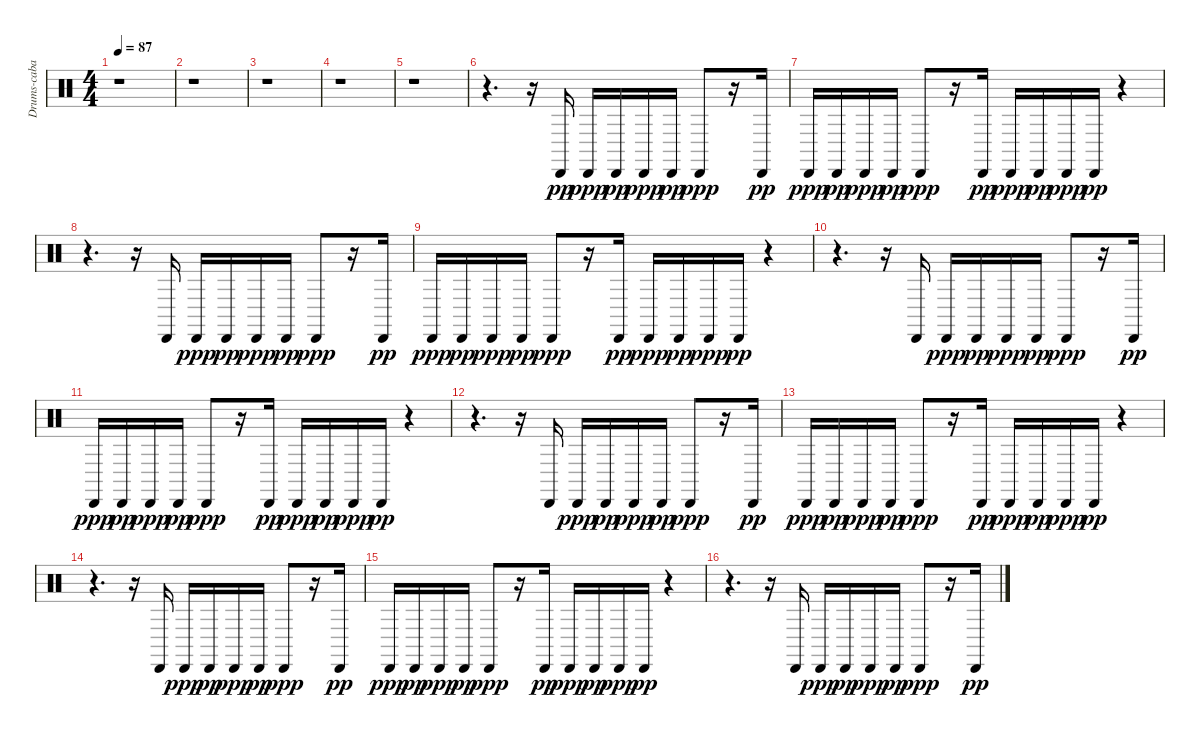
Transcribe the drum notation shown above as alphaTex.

\track ("Drums-cabasa" "Drums-caba") {instrument percussion}
\staff {score}
\articulation defaults
\ts (4 4)
\tempo 87
\clef neutral
\ks c
r.1{dy pp} |
r.1 |
r.1 |
r.1 |
r.1 |
r.4{d} r.16 "Cabasa (hit)".16 "Cabasa (hit)".16{dy ppp} "Cabasa (hit)".16{dy pp} "Cabasa (hit)".16{dy ppp} "Cabasa (hit)".16{dy pp} "Cabasa (hit)".8{dy ppp} r.16 "Cabasa (hit)".16{dy pp} |
"Cabasa (hit)".16{dy ppp} "Cabasa (hit)".16{dy pp} "Cabasa (hit)".16{dy ppp} "Cabasa (hit)".16{dy pp} "Cabasa (hit)".8{dy ppp} r.16 "Cabasa (hit)".16{dy pp} "Cabasa (hit)".16{dy ppp} "Cabasa (hit)".16{dy pp} "Cabasa (hit)".16{dy ppp} "Cabasa (hit)".16{dy pp} r.4 |
r.4{d} r.16 "Cabasa (hit)".16 "Cabasa (hit)".16{dy ppp} "Cabasa (hit)".16{dy pp} "Cabasa (hit)".16{dy ppp} "Cabasa (hit)".16{dy pp} "Cabasa (hit)".8{dy ppp} r.16 "Cabasa (hit)".16{dy pp} |
"Cabasa (hit)".16{dy ppp} "Cabasa (hit)".16{dy pp} "Cabasa (hit)".16{dy ppp} "Cabasa (hit)".16{dy pp} "Cabasa (hit)".8{dy ppp} r.16 "Cabasa (hit)".16{dy pp} "Cabasa (hit)".16{dy ppp} "Cabasa (hit)".16{dy pp} "Cabasa (hit)".16{dy ppp} "Cabasa (hit)".16{dy pp} r.4 |
r.4{d} r.16 "Cabasa (hit)".16 "Cabasa (hit)".16{dy ppp} "Cabasa (hit)".16{dy pp} "Cabasa (hit)".16{dy ppp} "Cabasa (hit)".16{dy pp} "Cabasa (hit)".8{dy ppp} r.16 "Cabasa (hit)".16{dy pp} |
"Cabasa (hit)".16{dy ppp} "Cabasa (hit)".16{dy pp} "Cabasa (hit)".16{dy ppp} "Cabasa (hit)".16{dy pp} "Cabasa (hit)".8{dy ppp} r.16 "Cabasa (hit)".16{dy pp} "Cabasa (hit)".16{dy ppp} "Cabasa (hit)".16{dy pp} "Cabasa (hit)".16{dy ppp} "Cabasa (hit)".16{dy pp} r.4 |
r.4{d} r.16 "Cabasa (hit)".16 "Cabasa (hit)".16{dy ppp} "Cabasa (hit)".16{dy pp} "Cabasa (hit)".16{dy ppp} "Cabasa (hit)".16{dy pp} "Cabasa (hit)".8{dy ppp} r.16 "Cabasa (hit)".16{dy pp} |
"Cabasa (hit)".16{dy ppp} "Cabasa (hit)".16{dy pp} "Cabasa (hit)".16{dy ppp} "Cabasa (hit)".16{dy pp} "Cabasa (hit)".8{dy ppp} r.16 "Cabasa (hit)".16{dy pp} "Cabasa (hit)".16{dy ppp} "Cabasa (hit)".16{dy pp} "Cabasa (hit)".16{dy ppp} "Cabasa (hit)".16{dy pp} r.4 |
r.4{d} r.16 "Cabasa (hit)".16 "Cabasa (hit)".16{dy ppp} "Cabasa (hit)".16{dy pp} "Cabasa (hit)".16{dy ppp} "Cabasa (hit)".16{dy pp} "Cabasa (hit)".8{dy ppp} r.16 "Cabasa (hit)".16{dy pp} |
"Cabasa (hit)".16{dy ppp} "Cabasa (hit)".16{dy pp} "Cabasa (hit)".16{dy ppp} "Cabasa (hit)".16{dy pp} "Cabasa (hit)".8{dy ppp} r.16 "Cabasa (hit)".16{dy pp} "Cabasa (hit)".16{dy ppp} "Cabasa (hit)".16{dy pp} "Cabasa (hit)".16{dy ppp} "Cabasa (hit)".16{dy pp} r.4 |
r.4{d} r.16 "Cabasa (hit)".16 "Cabasa (hit)".16{dy ppp} "Cabasa (hit)".16{dy pp} "Cabasa (hit)".16{dy ppp} "Cabasa (hit)".16{dy pp} "Cabasa (hit)".8{dy ppp} r.16 "Cabasa (hit)".16{dy pp}
